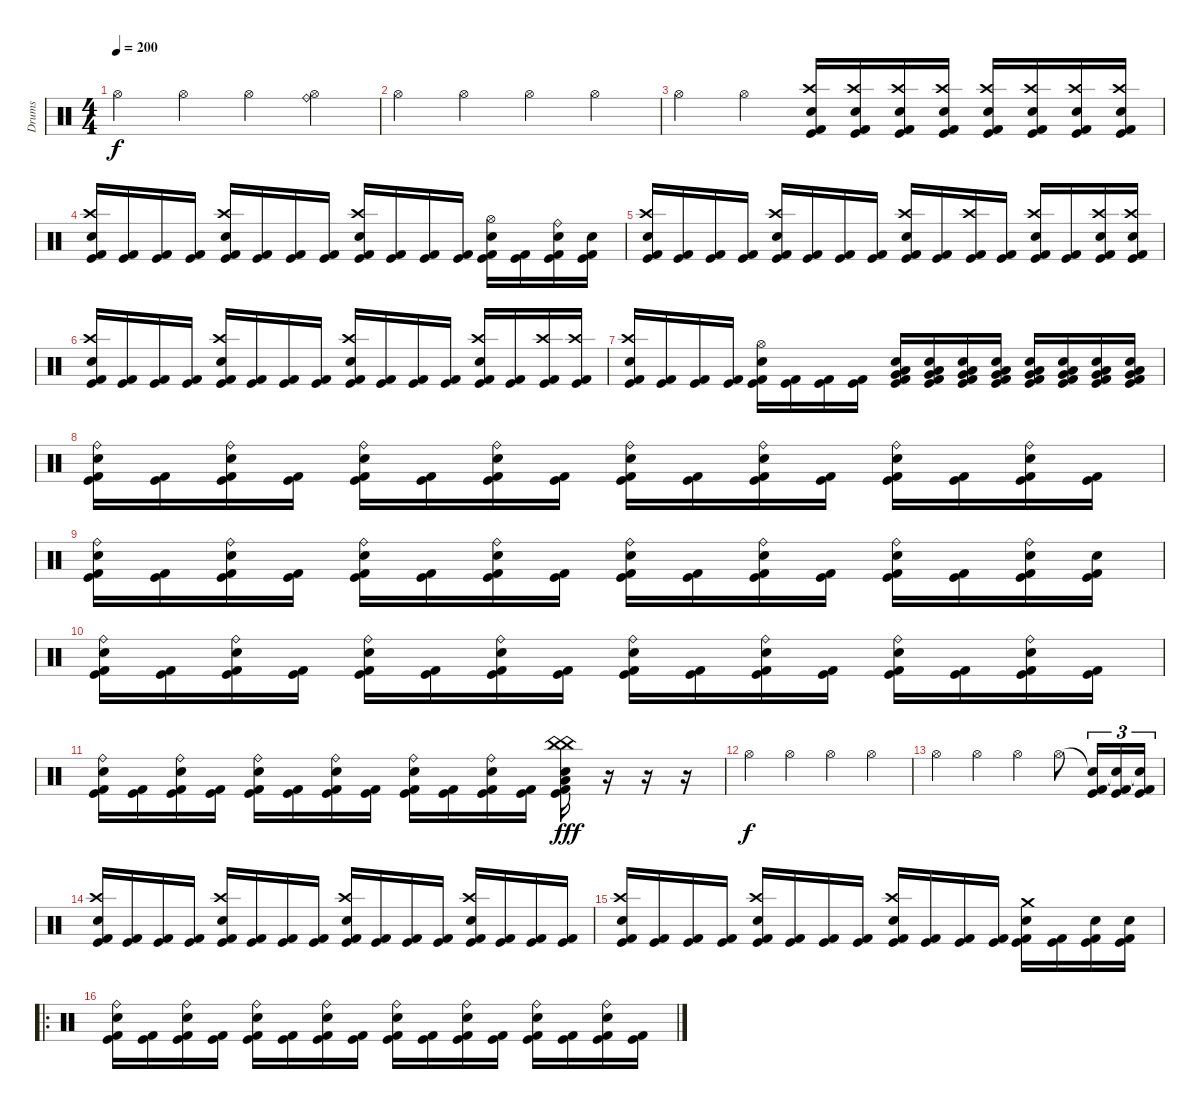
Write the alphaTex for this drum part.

\track ("Drums" "Drums") {instrument percussion}
\staff {score}
\articulation defaults
\ts (4 4)
\tempo 200
\clef neutral
\ks c "Hi-Hat (open)".4{dy f} "Hi-Hat (open)".4 "Hi-Hat (open)".4
("Ride (bell)" "Hi-Hat (open)").4 |
"Hi-Hat (open)".4 "Hi-Hat (open)".4 "Hi-Hat (open)".4 "Hi-Hat (open)".4 |
"Hi-Hat (open)".4 "Hi-Hat (open)".4 ("Kick (hit)" "Crash high (hit)" "Kick (hit) 2" "Electric Snare (hit)").16 ("Kick (hit)" "Crash high (hit)" "Kick (hit) 2" "Electric Snare (hit)").16 ("Kick (hit)" "Crash high (hit)" "Kick (hit) 2" "Electric Snare (hit)").16 ("Kick (hit)" "Crash high (hit)" "Kick (hit) 2" "Electric Snare (hit)").16 ("Kick (hit)" "Crash high (hit)" "Kick (hit) 2" "Electric Snare (hit)").16 ("Kick (hit)" "Crash high (hit)" "Kick (hit) 2" "Electric Snare (hit)").16 ("Kick (hit)" "Crash high (hit)" "Kick (hit) 2" "Electric Snare (hit)").16 ("Kick (hit)" "Crash high (hit)" "Kick (hit) 2" "Electric Snare (hit)").16 |
("Crash high (hit)" "Electric Snare (hit)" "Kick (hit)" "Kick (hit) 2").16 ("Kick (hit)" "Kick (hit) 2").16 ("Kick (hit)" "Kick (hit) 2").16 ("Kick (hit)" "Kick (hit) 2").16 ("Crash high (hit)" "Electric Snare (hit)" "Kick (hit)" "Kick (hit) 2").16 ("Kick (hit)" "Kick (hit) 2").16 ("Kick (hit)" "Kick (hit) 2").16 ("Kick (hit)" "Kick (hit) 2").16 ("Crash high (hit)" "Electric Snare (hit)" "Kick (hit)" "Kick (hit) 2").16 ("Kick (hit)" "Kick (hit) 2").16 ("Kick (hit)" "Kick (hit) 2").16 ("Kick (hit)" "Kick (hit) 2").16 ("Hi-Hat (open)" "Electric Snare (hit)" "Kick (hit)" "Kick (hit) 2").16 ("Kick (hit)" "Kick (hit) 2").16 ("Ride (bell)" "Electric Snare (hit)" "Kick (hit)" "Kick (hit) 2").16 ("Electric Snare (hit)" "Kick (hit)" "Kick (hit) 2").16 |
("Crash high (hit)" "Electric Snare (hit)" "Kick (hit)" "Kick (hit) 2").16 ("Kick (hit)" "Kick (hit) 2").16 ("Kick (hit)" "Kick (hit) 2").16 ("Kick (hit)" "Kick (hit) 2").16 ("Crash high (hit)" "Electric Snare (hit)" "Kick (hit)" "Kick (hit) 2").16 ("Kick (hit)" "Kick (hit) 2").16 ("Kick (hit)" "Kick (hit) 2").16 ("Kick (hit)" "Kick (hit) 2").16 ("Crash high (hit)" "Electric Snare (hit)" "Kick (hit)" "Kick (hit) 2").16 ("Kick (hit)" "Kick (hit) 2").16 ("Crash high (hit)" "Kick (hit)" "Kick (hit) 2").16 ("Kick (hit)" "Kick (hit) 2").16 ("Crash high (hit)" "Electric Snare (hit)" "Kick (hit)" "Kick (hit) 2").16 ("Kick (hit)" "Kick (hit) 2").16 ("Crash high (hit)" "Electric Snare (hit)" "Kick (hit)" "Kick (hit) 2").16 ("Crash high (hit)" "Electric Snare (hit)" "Kick (hit)" "Kick (hit) 2").16 |
("Crash high (hit)" "Electric Snare (hit)" "Kick (hit)" "Kick (hit) 2").16 ("Kick (hit)" "Kick (hit) 2").16 ("Kick (hit)" "Kick (hit) 2").16 ("Kick (hit)" "Kick (hit) 2").16 ("Crash high (hit)" "Electric Snare (hit)" "Kick (hit)" "Kick (hit) 2").16 ("Kick (hit)" "Kick (hit) 2").16 ("Kick (hit)" "Kick (hit) 2").16 ("Kick (hit)" "Kick (hit) 2").16 ("Crash high (hit)" "Electric Snare (hit)" "Kick (hit)" "Kick (hit) 2").16 ("Kick (hit)" "Kick (hit) 2").16 ("Kick (hit)" "Kick (hit) 2").16 ("Kick (hit)" "Kick (hit) 2").16 ("Crash high (hit)" "Electric Snare (hit)" "Kick (hit)" "Kick (hit) 2").16 ("Kick (hit)" "Kick (hit) 2").16 ("Crash high (hit)" "Kick (hit)" "Kick (hit) 2").16 ("Crash high (hit)" "Kick (hit)" "Kick (hit) 2").16 |
("Crash high (hit)" "Electric Snare (hit)" "Kick (hit)" "Kick (hit) 2").16 ("Kick (hit)" "Kick (hit) 2").16 ("Kick (hit)" "Kick (hit) 2").16 ("Kick (hit)" "Kick (hit) 2").16 ("Hi-Hat (open)" "Electric Snare (hit)" "Kick (hit)" "Kick (hit) 2").16 ("Kick (hit)" "Kick (hit) 2").16 ("Kick (hit)" "Kick (hit) 2").16 ("Kick (hit)" "Kick (hit) 2").16 ("Very Low Tom (hit)" "Low Floor Tom (hit)" "Electric Snare (hit)" "Kick (hit)" "Kick (hit) 2").16 ("Very Low Tom (hit)" "Low Floor Tom (hit)" "Electric Snare (hit)" "Kick (hit)" "Kick (hit) 2").16 ("Very Low Tom (hit)" "Low Floor Tom (hit)" "Electric Snare (hit)" "Kick (hit)" "Kick (hit) 2").16 ("Very Low Tom (hit)" "Low Floor Tom (hit)" "Electric Snare (hit)" "Kick (hit)" "Kick (hit) 2").16 ("Very Low Tom (hit)" "Low Floor Tom (hit)" "Electric Snare (hit)" "Kick (hit)" "Kick (hit) 2").16 ("Very Low Tom (hit)" "Low Floor Tom (hit)" "Electric Snare (hit)" "Kick (hit)" "Kick (hit) 2").16 ("Very Low Tom (hit)" "Low Floor Tom (hit)" "Electric Snare (hit)" "Kick (hit)" "Kick (hit) 2").16 ("Very Low Tom (hit)" "Low Floor Tom (hit)" "Electric Snare (hit)" "Kick (hit)" "Kick (hit) 2").16 |
("Ride (bell)" "Electric Snare (hit)" "Kick (hit)" "Kick (hit) 2").16 ("Kick (hit)" "Kick (hit) 2").16 ("Ride (bell)" "Electric Snare (hit)" "Kick (hit)" "Kick (hit) 2").16 ("Kick (hit)" "Kick (hit) 2").16 ("Ride (bell)" "Electric Snare (hit)" "Kick (hit)" "Kick (hit) 2").16 ("Kick (hit)" "Kick (hit) 2").16 ("Ride (bell)" "Electric Snare (hit)" "Kick (hit)" "Kick (hit) 2").16 ("Kick (hit)" "Kick (hit) 2").16 ("Ride (bell)" "Electric Snare (hit)" "Kick (hit)" "Kick (hit) 2").16 ("Kick (hit)" "Kick (hit) 2").16 ("Ride (bell)" "Electric Snare (hit)" "Kick (hit)" "Kick (hit) 2").16 ("Kick (hit)" "Kick (hit) 2").16 ("Ride (bell)" "Electric Snare (hit)" "Kick (hit)" "Kick (hit) 2").16 ("Kick (hit)" "Kick (hit) 2").16 ("Ride (bell)" "Electric Snare (hit)" "Kick (hit)" "Kick (hit) 2").16 ("Kick (hit)" "Kick (hit) 2").16 |
("Ride (bell)" "Electric Snare (hit)" "Kick (hit)" "Kick (hit) 2").16 ("Kick (hit)" "Kick (hit) 2").16 ("Ride (bell)" "Electric Snare (hit)" "Kick (hit)" "Kick (hit) 2").16 ("Kick (hit)" "Kick (hit) 2").16 ("Ride (bell)" "Electric Snare (hit)" "Kick (hit)" "Kick (hit) 2").16 ("Kick (hit)" "Kick (hit) 2").16 ("Ride (bell)" "Electric Snare (hit)" "Kick (hit)" "Kick (hit) 2").16 ("Kick (hit)" "Kick (hit) 2").16 ("Ride (bell)" "Electric Snare (hit)" "Kick (hit)" "Kick (hit) 2").16 ("Kick (hit)" "Kick (hit) 2").16 ("Ride (bell)" "Electric Snare (hit)" "Kick (hit)" "Kick (hit) 2").16 ("Kick (hit)" "Kick (hit) 2").16 ("Ride (bell)" "Electric Snare (hit)" "Kick (hit)" "Kick (hit) 2").16 ("Kick (hit)" "Kick (hit) 2").16 ("Ride (bell)" "Electric Snare (hit)" "Kick (hit)" "Kick (hit) 2").16 ("Electric Snare (hit)" "Kick (hit)" "Kick (hit) 2").16 |
("Ride (bell)" "Electric Snare (hit)" "Kick (hit)" "Kick (hit) 2").16 ("Kick (hit)" "Kick (hit) 2").16 ("Ride (bell)" "Electric Snare (hit)" "Kick (hit)" "Kick (hit) 2").16 ("Kick (hit)" "Kick (hit) 2").16 ("Ride (bell)" "Electric Snare (hit)" "Kick (hit)" "Kick (hit) 2").16 ("Kick (hit)" "Kick (hit) 2").16 ("Ride (bell)" "Electric Snare (hit)" "Kick (hit)" "Kick (hit) 2").16 ("Kick (hit)" "Kick (hit) 2").16 ("Ride (bell)" "Electric Snare (hit)" "Kick (hit)" "Kick (hit) 2").16 ("Kick (hit)" "Kick (hit) 2").16 ("Ride (bell)" "Electric Snare (hit)" "Kick (hit)" "Kick (hit) 2").16 ("Kick (hit)" "Kick (hit) 2").16 ("Ride (bell)" "Electric Snare (hit)" "Kick (hit)" "Kick (hit) 2").16 ("Kick (hit)" "Kick (hit) 2").16 ("Ride (bell)" "Electric Snare (hit)" "Kick (hit)" "Kick (hit) 2").16 ("Kick (hit)" "Kick (hit) 2").16 |
("Ride (bell)" "Electric Snare (hit)" "Kick (hit)" "Kick (hit) 2").16 ("Kick (hit)" "Kick (hit) 2").16 ("Ride (bell)" "Electric Snare (hit)" "Kick (hit)" "Kick (hit) 2").16 ("Kick (hit)" "Kick (hit) 2").16 ("Ride (bell)" "Electric Snare (hit)" "Kick (hit)" "Kick (hit) 2").16 ("Kick (hit)" "Kick (hit) 2").16 ("Ride (bell)" "Electric Snare (hit)" "Kick (hit)" "Kick (hit) 2").16 ("Kick (hit)" "Kick (hit) 2").16 ("Ride (bell)" "Electric Snare (hit)" "Kick (hit)" "Kick (hit) 2").16 ("Kick (hit)" "Kick (hit) 2").16 ("Ride (bell)" "Electric Snare (hit)" "Kick (hit)" "Kick (hit) 2").16 ("Kick (hit)" "Kick (hit) 2").16 ("China (hit)" "China (hit)" "Low Floor Tom (hit)" "Electric Snare (hit)" "Kick (hit)" "Kick (hit) 2").16{dy fff} r.16 r.16 r.16 |
"Hi-Hat (open)".4{dy f} "Hi-Hat (open)".4 "Hi-Hat (open)".4 "Hi-Hat (open)".4 |
"Hi-Hat (open)".4 "Hi-Hat (open)".4 "Hi-Hat (open)".4 "Hi-Hat (open)".8 ("Snare (hit)"{t} "Kick (hit)" "Kick (hit) 2").16{tu (3 2)} ("Snare (hit)"{t} "Kick (hit)" "Kick (hit) 2").16{tu (3 2)} ("Snare (hit)"{t} "Kick (hit)" "Kick (hit) 2").16{tu (3 2)} |
("Crash high (hit)" "Electric Snare (hit)" "Kick (hit)" "Kick (hit) 2").16 ("Kick (hit)" "Kick (hit) 2").16 ("Kick (hit)" "Kick (hit) 2").16 ("Kick (hit)" "Kick (hit) 2").16 ("Crash high (hit)" "Electric Snare (hit)" "Kick (hit)" "Kick (hit) 2").16 ("Kick (hit)" "Kick (hit) 2").16 ("Kick (hit)" "Kick (hit) 2").16 ("Kick (hit)" "Kick (hit) 2").16 ("Crash high (hit)" "Electric Snare (hit)" "Kick (hit)" "Kick (hit) 2").16 ("Kick (hit)" "Kick (hit) 2").16 ("Kick (hit)" "Kick (hit) 2").16 ("Kick (hit)" "Kick (hit) 2").16 ("Crash high (hit)" "Electric Snare (hit)" "Kick (hit)" "Kick (hit) 2").16 ("Kick (hit)" "Kick (hit) 2").16 ("Kick (hit)" "Kick (hit) 2").16 ("Kick (hit)" "Kick (hit) 2").16 |
("Crash high (hit)" "Electric Snare (hit)" "Kick (hit)" "Kick (hit) 2").16 ("Kick (hit)" "Kick (hit) 2").16 ("Kick (hit)" "Kick (hit) 2").16 ("Kick (hit)" "Kick (hit) 2").16 ("Crash high (hit)" "Electric Snare (hit)" "Kick (hit)" "Kick (hit) 2").16 ("Kick (hit)" "Kick (hit) 2").16 ("Kick (hit)" "Kick (hit) 2").16 ("Kick (hit)" "Kick (hit) 2").16 ("Crash high (hit)" "Electric Snare (hit)" "Kick (hit)" "Kick (hit) 2").16 ("Kick (hit)" "Kick (hit) 2").16 ("Kick (hit)" "Kick (hit) 2").16 ("Kick (hit)" "Kick (hit) 2").16 ("Crash medium (hit)" "Electric Snare (hit)" "Kick (hit)" "Kick (hit) 2").16 ("Kick (hit)" "Kick (hit) 2").16 ("Electric Snare (hit)" "Kick (hit)" "Kick (hit) 2").16 ("Electric Snare (hit)" "Kick (hit)" "Kick (hit) 2").16 |
\ro
("Ride (bell)" "Electric Snare (hit)" "Kick (hit)" "Kick (hit) 2").16 ("Kick (hit)" "Kick (hit) 2").16 ("Ride (bell)" "Electric Snare (hit)" "Kick (hit)" "Kick (hit) 2").16 ("Kick (hit)" "Kick (hit) 2").16 ("Ride (bell)" "Electric Snare (hit)" "Kick (hit)" "Kick (hit) 2").16 ("Kick (hit)" "Kick (hit) 2").16 ("Ride (bell)" "Electric Snare (hit)" "Kick (hit)" "Kick (hit) 2").16 ("Kick (hit)" "Kick (hit) 2").16 ("Ride (bell)" "Electric Snare (hit)" "Kick (hit)" "Kick (hit) 2").16 ("Kick (hit)" "Kick (hit) 2").16 ("Ride (bell)" "Electric Snare (hit)" "Kick (hit)" "Kick (hit) 2").16 ("Kick (hit)" "Kick (hit) 2").16 ("Ride (bell)" "Electric Snare (hit)" "Kick (hit)" "Kick (hit) 2").16 ("Kick (hit)" "Kick (hit) 2").16 ("Ride (bell)" "Electric Snare (hit)" "Kick (hit)" "Kick (hit) 2").16 ("Kick (hit)" "Kick (hit) 2").16
